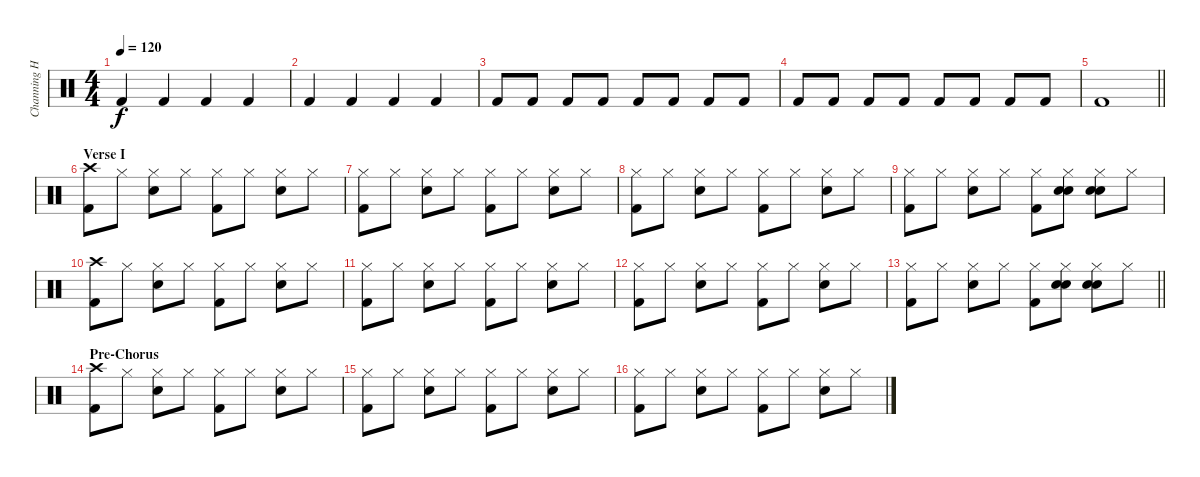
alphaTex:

\track ("Channing Holmes' drums" "Channing H") {instrument percussion}
\staff {score}
\articulation defaults
\ts (4 4)
\tempo 120
\clef neutral
\ks c "Kick (hit) 2".4{dy f} "Kick (hit) 2".4 "Kick (hit) 2".4 "Kick (hit) 2".4
|
"Kick (hit) 2".4 "Kick (hit) 2".4 "Kick (hit) 2".4 "Kick (hit) 2".4 |
"Kick (hit) 2".8 "Kick (hit) 2".8 "Kick (hit) 2".8 "Kick (hit) 2".8 "Kick (hit) 2".8 "Kick (hit) 2".8 "Kick (hit) 2".8 "Kick (hit) 2".8 |
"Kick (hit) 2".8 "Kick (hit) 2".8 "Kick (hit) 2".8 "Kick (hit) 2".8 "Kick (hit) 2".8 "Kick (hit) 2".8 "Kick (hit) 2".8 "Kick (hit) 2".8 |
\barLineRight lightlight "Kick (hit) 2".1
|
\section ("" "Verse I")
("Crash high (hit)" "Kick (hit) 2").8 "Hi-Hat (closed)".8 ("Hi-Hat (closed)" "Snare (hit) 2").8 "Hi-Hat (closed)".8 ("Hi-Hat (closed)" "Kick (hit) 2").8 "Hi-Hat (closed)".8 ("Hi-Hat (closed)" "Snare (hit) 2").8 "Hi-Hat (closed)".8 |
("Hi-Hat (closed)" "Kick (hit) 2").8 "Hi-Hat (closed)".8 ("Hi-Hat (closed)" "Snare (hit) 2").8 "Hi-Hat (closed)".8 ("Hi-Hat (closed)" "Kick (hit) 2").8 "Hi-Hat (closed)".8 ("Hi-Hat (closed)" "Snare (hit) 2").8 "Hi-Hat (closed)".8 |
("Hi-Hat (closed)" "Kick (hit) 2").8 "Hi-Hat (closed)".8 ("Hi-Hat (closed)" "Snare (hit) 2").8 "Hi-Hat (closed)".8 ("Hi-Hat (closed)" "Kick (hit) 2").8 "Hi-Hat (closed)".8 ("Hi-Hat (closed)" "Snare (hit) 2").8 "Hi-Hat (closed)".8 |
("Hi-Hat (closed)" "Kick (hit) 2").8 "Hi-Hat (closed)".8 ("Hi-Hat (closed)" "Snare (hit) 2").8 "Hi-Hat (closed)".8 ("Hi-Hat (closed)" "Kick (hit) 2").8 ("Hand Clap (hit)" "Hi-Hat (closed)" "Snare (hit) 2").8 ("Hand Clap (hit)" "Hi-Hat (closed)" "Snare (hit) 2").8 "Hi-Hat (closed)".8 |
("Crash high (hit)" "Kick (hit) 2").8 "Hi-Hat (closed)".8 ("Hi-Hat (closed)" "Snare (hit) 2").8 "Hi-Hat (closed)".8 ("Hi-Hat (closed)" "Kick (hit) 2").8 "Hi-Hat (closed)".8 ("Hi-Hat (closed)" "Snare (hit) 2").8 "Hi-Hat (closed)".8 |
("Hi-Hat (closed)" "Kick (hit) 2").8 "Hi-Hat (closed)".8 ("Hi-Hat (closed)" "Snare (hit) 2").8 "Hi-Hat (closed)".8 ("Hi-Hat (closed)" "Kick (hit) 2").8 "Hi-Hat (closed)".8 ("Hi-Hat (closed)" "Snare (hit) 2").8 "Hi-Hat (closed)".8 |
("Hi-Hat (closed)" "Kick (hit) 2").8 "Hi-Hat (closed)".8 ("Hi-Hat (closed)" "Snare (hit) 2").8 "Hi-Hat (closed)".8 ("Hi-Hat (closed)" "Kick (hit) 2").8 "Hi-Hat (closed)".8 ("Hi-Hat (closed)" "Snare (hit) 2").8 "Hi-Hat (closed)".8 |
\barLineRight lightlight
("Hi-Hat (closed)" "Kick (hit) 2").8 "Hi-Hat (closed)".8 ("Hi-Hat (closed)" "Snare (hit) 2").8 "Hi-Hat (closed)".8 ("Hi-Hat (closed)" "Kick (hit) 2").8 ("Hand Clap (hit)" "Hi-Hat (closed)" "Snare (hit) 2").8 ("Hand Clap (hit)" "Hi-Hat (closed)" "Snare (hit) 2").8 "Hi-Hat (closed)".8 |
\section ("" "Pre-Chorus")
("Crash high (hit)" "Kick (hit) 2").8 "Hi-Hat (closed)".8 ("Hi-Hat (closed)" "Snare (hit) 2").8 "Hi-Hat (closed)".8 ("Hi-Hat (closed)" "Kick (hit) 2").8 "Hi-Hat (closed)".8 ("Hi-Hat (closed)" "Snare (hit) 2").8 "Hi-Hat (closed)".8 |
("Hi-Hat (closed)" "Kick (hit) 2").8 "Hi-Hat (closed)".8 ("Hi-Hat (closed)" "Snare (hit) 2").8 "Hi-Hat (closed)".8 ("Hi-Hat (closed)" "Kick (hit) 2").8 "Hi-Hat (closed)".8 ("Hi-Hat (closed)" "Snare (hit) 2").8 "Hi-Hat (closed)".8 |
("Hi-Hat (closed)" "Kick (hit) 2").8 "Hi-Hat (closed)".8 ("Hi-Hat (closed)" "Snare (hit) 2").8 "Hi-Hat (closed)".8 ("Hi-Hat (closed)" "Kick (hit) 2").8 "Hi-Hat (closed)".8 ("Hi-Hat (closed)" "Snare (hit) 2").8 "Hi-Hat (closed)".8
